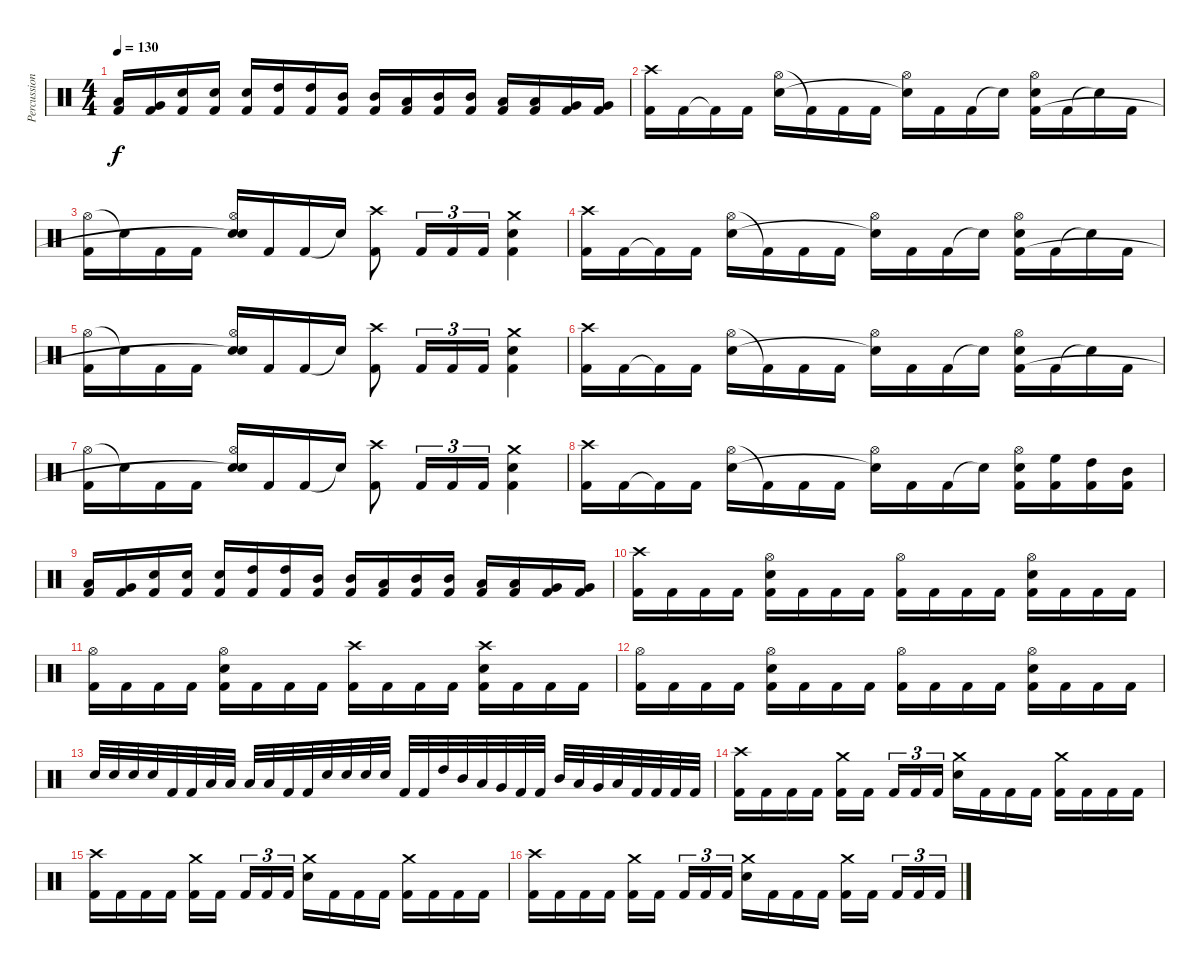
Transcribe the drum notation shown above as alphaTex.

\track ("Percussion" "Percussion") {instrument percussion}
\staff {score}
\articulation defaults
\ts (4 4)
\tempo 130
\clef neutral
\ks c
("Low Tom (hit)" "Kick (hit) 2").16{dy f} ("Very Low Tom (hit)" "Kick (hit) 2").16 ("Electric Snare (hit)" "Kick (hit) 2").16 ("Electric Snare (hit)" "Kick (hit) 2").16 ("Electric Snare (hit)" "Kick (hit) 2").16 ("High Tom (hit)" "Kick (hit) 2").16 ("High Tom (hit)" "Kick (hit) 2").16 ("Mid Tom (hit)" "Kick (hit) 2").16 ("Mid Tom (hit)" "Kick (hit) 2").16 ("Low Tom (hit)" "Kick (hit) 2").16 ("Mid Tom (hit)" "Kick (hit) 2").16 ("Mid Tom (hit)" "Kick (hit) 2").16 ("Low Tom (hit)" "Kick (hit) 2").16 ("Low Tom (hit)" "Kick (hit) 2").16 ("Very Low Tom (hit)" "Kick (hit) 2").16 ("Very Low Tom (hit)" "Kick (hit) 2").16 |
("Crash high (hit)" "Kick (hit) 2").16 "Kick (hit) 2".16 "Kick (hit) 2"{t}.16 "Kick (hit) 2".16 ("Hi-Hat (open)" "Electric Snare (hit)").16 "Kick (hit) 2"{t}.16 "Kick (hit) 2".16 "Kick (hit) 2".16 ("Hi-Hat (open)" "Snare (hit)"{t}).16 "Kick (hit) 2".16 "Kick (hit) 2".16 "Snare (hit)"{t}.16 ("Hi-Hat (open)" "Electric Snare (hit)" "Kick (hit) 2").16 "Kick (hit) 2".16 "Snare (hit)"{t}.16 "Kick (hit) 2".16 |
("Hi-Hat (open)" "Kick (hit) 2").16 "Snare (hit)"{t}.16 "Kick (hit) 2".16 "Kick (hit) 2".16 ("Hi-Hat (open)" "Electric Snare (hit)" "Snare (hit)"{t}).16 "Kick (hit) 2".16 "Kick (hit) 2".16 "Snare (hit)"{t}.16 ("Crash high (hit)" "Kick (hit) 2").8 "Kick (hit) 2".16{tu (3 2)} "Kick (hit) 2".16{tu (3 2)} "Kick (hit) 2".16{tu (3 2)} ("Crash medium (hit)" "Electric Snare (hit)" "Kick (hit) 2").4 |
("Crash high (hit)" "Kick (hit) 2").16 "Kick (hit) 2".16 "Kick (hit) 2"{t}.16 "Kick (hit) 2".16 ("Hi-Hat (open)" "Electric Snare (hit)").16 "Kick (hit) 2"{t}.16 "Kick (hit) 2".16 "Kick (hit) 2".16 ("Hi-Hat (open)" "Snare (hit)"{t}).16 "Kick (hit) 2".16 "Kick (hit) 2".16 "Snare (hit)"{t}.16 ("Hi-Hat (open)" "Electric Snare (hit)" "Kick (hit) 2").16 "Kick (hit) 2".16 "Snare (hit)"{t}.16 "Kick (hit) 2".16 |
("Hi-Hat (open)" "Kick (hit) 2").16 "Snare (hit)"{t}.16 "Kick (hit) 2".16 "Kick (hit) 2".16 ("Hi-Hat (open)" "Electric Snare (hit)" "Snare (hit)"{t}).16 "Kick (hit) 2".16 "Kick (hit) 2".16 "Snare (hit)"{t}.16 ("Crash high (hit)" "Kick (hit) 2").8 "Kick (hit) 2".16{tu (3 2)} "Kick (hit) 2".16{tu (3 2)} "Kick (hit) 2".16{tu (3 2)} ("Crash medium (hit)" "Electric Snare (hit)" "Kick (hit) 2").4 |
("Crash high (hit)" "Kick (hit) 2").16 "Kick (hit) 2".16 "Kick (hit) 2"{t}.16 "Kick (hit) 2".16 ("Hi-Hat (open)" "Electric Snare (hit)").16 "Kick (hit) 2"{t}.16 "Kick (hit) 2".16 "Kick (hit) 2".16 ("Hi-Hat (open)" "Snare (hit)"{t}).16 "Kick (hit) 2".16 "Kick (hit) 2".16 "Snare (hit)"{t}.16 ("Hi-Hat (open)" "Electric Snare (hit)" "Kick (hit) 2").16 "Kick (hit) 2".16 "Snare (hit)"{t}.16 "Kick (hit) 2".16 |
("Hi-Hat (open)" "Kick (hit) 2").16 "Snare (hit)"{t}.16 "Kick (hit) 2".16 "Kick (hit) 2".16 ("Hi-Hat (open)" "Electric Snare (hit)" "Snare (hit)"{t}).16 "Kick (hit) 2".16 "Kick (hit) 2".16 "Snare (hit)"{t}.16 ("Crash high (hit)" "Kick (hit) 2").8 "Kick (hit) 2".16{tu (3 2)} "Kick (hit) 2".16{tu (3 2)} "Kick (hit) 2".16{tu (3 2)} ("Crash medium (hit)" "Electric Snare (hit)" "Kick (hit) 2").4 |
("Crash high (hit)" "Kick (hit) 2").16 "Kick (hit) 2".16 "Kick (hit) 2"{t}.16 "Kick (hit) 2".16 ("Hi-Hat (open)" "Electric Snare (hit)").16 "Kick (hit) 2"{t}.16 "Kick (hit) 2".16 "Kick (hit) 2".16 ("Hi-Hat (open)" "Snare (hit)"{t}).16 "Kick (hit) 2".16 "Kick (hit) 2".16 "Snare (hit)"{t}.16 ("Hi-Hat (open)" "Electric Snare (hit)" "Kick (hit) 2").16 ("High Floor Tom (hit)" "Kick (hit) 2").16 ("High Tom (hit)" "Kick (hit) 2").16 ("Mid Tom (hit)" "Kick (hit) 2").16 |
("Low Tom (hit)" "Kick (hit) 2").16 ("Very Low Tom (hit)" "Kick (hit) 2").16 ("Electric Snare (hit)" "Kick (hit) 2").16 ("Electric Snare (hit)" "Kick (hit) 2").16 ("Electric Snare (hit)" "Kick (hit) 2").16 ("High Tom (hit)" "Kick (hit) 2").16 ("High Tom (hit)" "Kick (hit) 2").16 ("Mid Tom (hit)" "Kick (hit) 2").16 ("Mid Tom (hit)" "Kick (hit) 2").16 ("Low Tom (hit)" "Kick (hit) 2").16 ("Mid Tom (hit)" "Kick (hit) 2").16 ("Mid Tom (hit)" "Kick (hit) 2").16 ("Low Tom (hit)" "Kick (hit) 2").16 ("Low Tom (hit)" "Kick (hit) 2").16 ("Very Low Tom (hit)" "Kick (hit) 2").16 ("Very Low Tom (hit)" "Kick (hit) 2").16 |
("Crash high (hit)" "Kick (hit) 2").16 "Kick (hit) 2".16 "Kick (hit) 2".16 "Kick (hit) 2".16 ("Hi-Hat (open)" "Electric Snare (hit)" "Kick (hit) 2").16 "Kick (hit) 2".16 "Kick (hit) 2".16 "Kick (hit) 2".16 ("Hi-Hat (open)" "Kick (hit) 2").16 "Kick (hit) 2".16 "Kick (hit) 2".16 "Kick (hit) 2".16 ("Hi-Hat (open)" "Electric Snare (hit)" "Kick (hit) 2").16 "Kick (hit) 2".16 "Kick (hit) 2".16 "Kick (hit) 2".16 |
("Hi-Hat (open)" "Kick (hit) 2").16 "Kick (hit) 2".16 "Kick (hit) 2".16 "Kick (hit) 2".16 ("Hi-Hat (open)" "Electric Snare (hit)" "Kick (hit) 2").16 "Kick (hit) 2".16 "Kick (hit) 2".16 "Kick (hit) 2".16 ("Crash high (hit)" "Kick (hit) 2").16 "Kick (hit) 2".16 "Kick (hit) 2".16 "Kick (hit) 2".16 ("Crash high (hit)" "Electric Snare (hit)" "Kick (hit) 2").16 "Kick (hit) 2".16 "Kick (hit) 2".16 "Kick (hit) 2".16 |
("Hi-Hat (open)" "Kick (hit) 2").16 "Kick (hit) 2".16 "Kick (hit) 2".16 "Kick (hit) 2".16 ("Hi-Hat (open)" "Electric Snare (hit)" "Kick (hit) 2").16 "Kick (hit) 2".16 "Kick (hit) 2".16 "Kick (hit) 2".16 ("Hi-Hat (open)" "Kick (hit) 2").16 "Kick (hit) 2".16 "Kick (hit) 2".16 "Kick (hit) 2".16 ("Hi-Hat (open)" "Electric Snare (hit)" "Kick (hit) 2").16 "Kick (hit) 2".16 "Kick (hit) 2".16 "Kick (hit) 2".16 |
"Electric Snare (hit)".32 "Electric Snare (hit)".32 "Electric Snare (hit)".32 "Electric Snare (hit)".32 "Kick (hit) 2".32 "Kick (hit) 2".32 "Low Tom (hit)".32 "Low Tom (hit)".32 "Low Tom (hit)".32 "Low Tom (hit)".32 "Kick (hit) 2".32 "Kick (hit) 2".32 "Electric Snare (hit)".32 "Electric Snare (hit)".32 "Electric Snare (hit)".32 "Electric Snare (hit)".32 "Kick (hit) 2".32 "Kick (hit) 2".32 "High Tom (hit)".32 "Mid Tom (hit)".32 "Low Tom (hit)".32 "Very Low Tom (hit)".32 "Kick (hit) 2".32 "Kick (hit) 2".32 "Mid Tom (hit)".32 "Low Tom (hit)".32 "Very Low Tom (hit)".32 "Low Floor Tom (hit)".32 "Kick (hit) 2".32 "Kick (hit) 2".32 "Kick (hit) 2".32 "Kick (hit) 2".32 |
("Crash high (hit)" "Kick (hit) 2").16 "Kick (hit) 2".16 "Kick (hit) 2".16 "Kick (hit) 2".16 ("Crash medium (hit)" "Kick (hit) 2").16 "Kick (hit) 2".16{beam splitsecondary} "Kick (hit) 2".16{tu (3 2)} "Kick (hit) 2".16{tu (3 2)} "Kick (hit) 2".16{tu (3 2)} ("Crash medium (hit)" "Electric Snare (hit)").16 "Kick (hit) 2".16 "Kick (hit) 2".16 "Kick (hit) 2".16 ("Crash medium (hit)" "Kick (hit) 2").16 "Kick (hit) 2".16 "Kick (hit) 2".16 "Kick (hit) 2".16 |
("Crash high (hit)" "Kick (hit) 2").16 "Kick (hit) 2".16 "Kick (hit) 2".16 "Kick (hit) 2".16 ("Crash medium (hit)" "Kick (hit) 2").16 "Kick (hit) 2".16{beam splitsecondary} "Kick (hit) 2".16{tu (3 2)} "Kick (hit) 2".16{tu (3 2)} "Kick (hit) 2".16{tu (3 2)} ("Crash medium (hit)" "Electric Snare (hit)").16 "Kick (hit) 2".16 "Kick (hit) 2".16 "Kick (hit) 2".16 ("Crash medium (hit)" "Kick (hit) 2").16 "Kick (hit) 2".16 "Kick (hit) 2".16 "Kick (hit) 2".16 |
("Crash high (hit)" "Kick (hit) 2").16 "Kick (hit) 2".16 "Kick (hit) 2".16 "Kick (hit) 2".16 ("Crash medium (hit)" "Kick (hit) 2").16 "Kick (hit) 2".16{beam splitsecondary} "Kick (hit) 2".16{tu (3 2)} "Kick (hit) 2".16{tu (3 2)} "Kick (hit) 2".16{tu (3 2)} ("Crash medium (hit)" "Electric Snare (hit)").16 "Kick (hit) 2".16 "Kick (hit) 2".16 "Kick (hit) 2".16 ("Crash medium (hit)" "Kick (hit) 2").16 "Kick (hit) 2".16{beam splitsecondary} "Kick (hit) 2".16{tu (3 2)} "Kick (hit) 2".16{tu (3 2)} "Kick (hit) 2".16{tu (3 2)}
